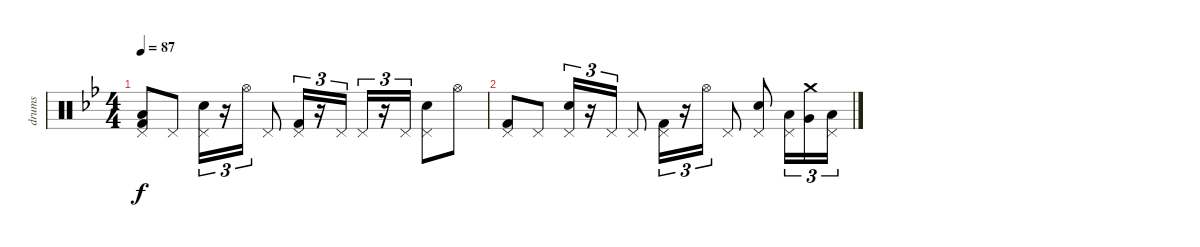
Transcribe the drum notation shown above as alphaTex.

\track ("drums" "drums") {instrument percussion}
\staff {score}
\articulation defaults
\ts (4 4)
\tempo 87
\clef neutral
\ks gminor
("Pedal Hi-Hat (hit)" "Low Floor Tom (hit)" "Kick (hit) 2").8{dy f} "Pedal Hi-Hat (hit)".8 ("Pedal Hi-Hat (hit)" "Electric Snare (hit)").16{tu (3 2)} r.16{tu (3 2)} "Hi-Hat (open)".16{tu (3 2)} "Pedal Hi-Hat (hit)".8 ("Pedal Hi-Hat (hit)" "Kick (hit) 2").16{tu (3 2)} r.16{tu (3 2)} "Pedal Hi-Hat (hit)".16{tu (3 2)} "Pedal Hi-Hat (hit)".16{tu (3 2)} r.16{tu (3 2)} "Pedal Hi-Hat (hit)".16{tu (3 2)} ("Pedal Hi-Hat (hit)" "Electric Snare (hit)").8 "Hi-Hat (open)".8 |
("Pedal Hi-Hat (hit)" "Kick (hit) 2").8 "Pedal Hi-Hat (hit)".8 ("Pedal Hi-Hat (hit)" "Electric Snare (hit)").16{tu (3 2)} r.16{tu (3 2)} "Pedal Hi-Hat (hit)".16{tu (3 2)} "Pedal Hi-Hat (hit)".8 ("Pedal Hi-Hat (hit)" "Kick (hit) 2").16{tu (3 2)} r.16{tu (3 2)} "Hi-Hat (open)".16{tu (3 2)} "Pedal Hi-Hat (hit)".8 ("Pedal Hi-Hat (hit)" "Electric Snare (hit)").8 ("Pedal Hi-Hat (hit)" "Low Tom (hit)").16{tu (3 2)} ("Crash medium (hit)" "Very Low Tom (hit)").16{tu (3 2)} ("Pedal Hi-Hat (hit)" "Low Floor Tom (hit)").16{tu (3 2)}
